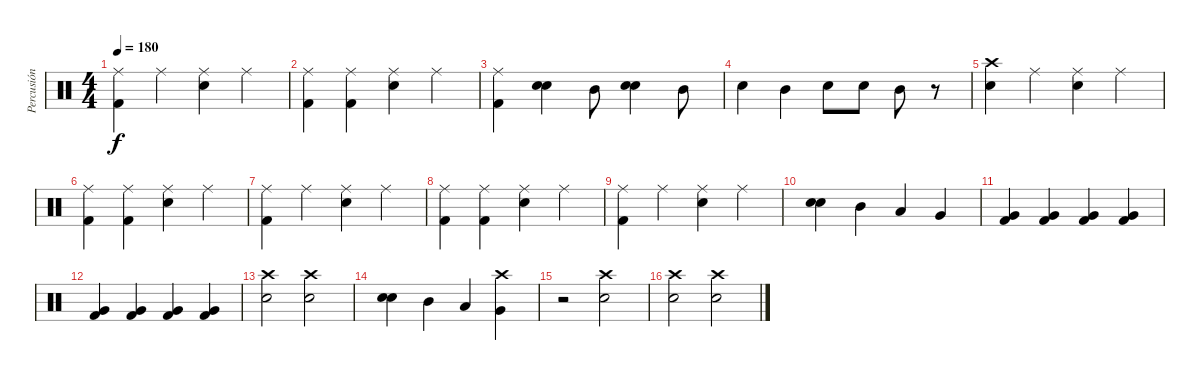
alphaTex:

\track ("Percusión" "Percusión") {instrument percussion}
\staff {score}
\articulation defaults
\ts (4 4)
\tempo 180
\clef neutral
\ks c
("Ride (middle)" "Kick (hit) 2").4{dy f} "Ride (middle)".4 ("Ride (middle)" "Snare (hit) 2").4 "Ride (middle)".4 |
("Ride (middle)" "Kick (hit) 2").4 ("Ride (middle)" "Kick (hit) 2").4 ("Ride (middle)" "Snare (hit) 2").4 "Ride (middle)".4 |
("Ride (middle)" "Kick (hit) 2").4 ("Snare (hit) 2" "Snare (hit) 2").4{bu 240} "Mid Tom (hit)".8 ("Snare (hit) 2" "Snare (hit) 2").4{bu 240} "Mid Tom (hit)".8 |
"Snare (hit) 2".4 "Mid Tom (hit)".4 "Snare (hit) 2".8 "Snare (hit) 2".8 "Mid Tom (hit)".8 r.8 |
("Crash high (hit)" "Snare (hit) 2").4 "Ride (middle)".4 ("Ride (middle)" "Snare (hit) 2").4 "Ride (middle)".4 |
("Ride (middle)" "Kick (hit) 2").4 ("Ride (middle)" "Kick (hit) 2").4 ("Ride (middle)" "Snare (hit) 2").4 "Ride (middle)".4 |
("Ride (middle)" "Kick (hit) 2").4 "Ride (middle)".4 ("Ride (middle)" "Snare (hit) 2").4 "Ride (middle)".4 |
("Ride (middle)" "Kick (hit) 2").4 ("Ride (middle)" "Kick (hit) 2").4 ("Ride (middle)" "Snare (hit) 2").4 "Ride (middle)".4 |
("Ride (middle)" "Kick (hit) 2").4 "Ride (middle)".4 ("Ride (middle)" "Snare (hit) 2").4 "Ride (middle)".4 |
("Snare (hit) 2" "Snare (hit) 2").4{bu 240} "Mid Tom (hit)".4 "Low Tom (hit)".4 "Very Low Tom (hit)".4 |
("Kick (hit) 2" "Very Low Tom (hit)").4 ("Kick (hit) 2" "Very Low Tom (hit)").4 ("Kick (hit) 2" "Very Low Tom (hit)").4 ("Kick (hit) 2" "Very Low Tom (hit)").4 |
("Kick (hit) 2" "Very Low Tom (hit)").4 ("Kick (hit) 2" "Very Low Tom (hit)").4 ("Kick (hit) 2" "Very Low Tom (hit)").4 ("Kick (hit) 2" "Very Low Tom (hit)").4 |
("Snare (hit) 2" "Crash high (hit)").2 ("Crash high (hit)" "Snare (hit) 2").2 |
("Snare (hit) 2" "Snare (hit) 2").4{bu 240} "Mid Tom (hit)".4 "Low Tom (hit)".4 ("Crash high (hit)" "Very Low Tom (hit)").4 |
r.2 ("Crash high (hit)" "Snare (hit) 2").2 |
("Snare (hit) 2" "Crash high (hit)").2 ("Crash high (hit)" "Snare (hit) 2").2
